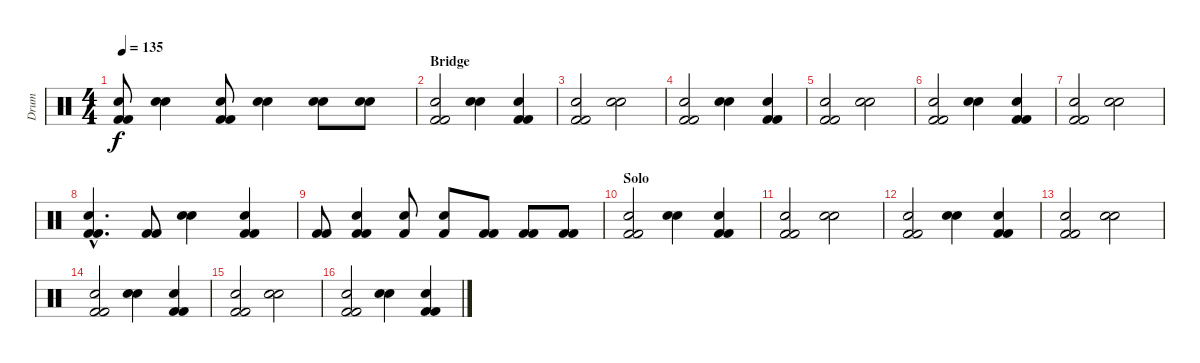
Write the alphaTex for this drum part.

\track ("Drum" "Drum") {instrument percussion}
\staff {score}
\articulation defaults
\ts (4 4)
\tempo 135
\clef neutral
\ks c
("Electric Snare (hit)" "Kick (hit) 2" "Kick (hit) 2").8{dy f} ("Electric Snare (hit)" "Electric Snare (hit)").4 ("Electric Snare (hit)" "Kick (hit) 2" "Kick (hit) 2").8 ("Electric Snare (hit)" "Electric Snare (hit)").4 ("Electric Snare (hit)" "Electric Snare (hit)").8 ("Electric Snare (hit)" "Electric Snare (hit)").8 |
\section ("" "Bridge")
("Electric Snare (hit)" "Kick (hit) 2" "Kick (hit) 2").2 ("Electric Snare (hit)" "Electric Snare (hit)").4 ("Electric Snare (hit)" "Kick (hit) 2" "Kick (hit) 2").4 |
("Electric Snare (hit)" "Kick (hit) 2" "Kick (hit) 2").2 ("Electric Snare (hit)" "Electric Snare (hit)").2 |
("Electric Snare (hit)" "Kick (hit) 2" "Kick (hit) 2").2 ("Electric Snare (hit)" "Electric Snare (hit)").4 ("Electric Snare (hit)" "Kick (hit) 2" "Kick (hit) 2").4 |
("Electric Snare (hit)" "Kick (hit) 2" "Kick (hit) 2").2 ("Electric Snare (hit)" "Electric Snare (hit)").2 |
("Electric Snare (hit)" "Kick (hit) 2" "Kick (hit) 2").2 ("Electric Snare (hit)" "Electric Snare (hit)").4 ("Electric Snare (hit)" "Kick (hit) 2" "Kick (hit) 2").4 |
("Electric Snare (hit)" "Kick (hit) 2" "Kick (hit) 2").2 ("Electric Snare (hit)" "Electric Snare (hit)").2 |
("Electric Snare (hit)"{hac} "Kick (hit) 2"{hac} "Kick (hit) 2"{hac}).4{d} ("Kick (hit) 2" "Kick (hit) 2").8 ("Electric Snare (hit)" "Electric Snare (hit)").4 ("Electric Snare (hit)" "Kick (hit) 2" "Kick (hit) 2").4 |
("Kick (hit) 2" "Kick (hit) 2").8 ("Electric Snare (hit)" "Kick (hit) 2" "Kick (hit) 2").4 ("Electric Snare (hit)" "Kick (hit) 2").8 ("Electric Snare (hit)" "Kick (hit) 2").8 ("Kick (hit) 2" "Kick (hit) 2").8 ("Kick (hit) 2" "Kick (hit) 2").8 ("Kick (hit) 2" "Kick (hit) 2").8 |
\section ("" "Solo")
("Electric Snare (hit)" "Kick (hit) 2" "Kick (hit) 2").2 ("Electric Snare (hit)" "Electric Snare (hit)").4 ("Electric Snare (hit)" "Kick (hit) 2" "Kick (hit) 2").4 |
("Electric Snare (hit)" "Kick (hit) 2" "Kick (hit) 2").2 ("Electric Snare (hit)" "Electric Snare (hit)").2 |
("Electric Snare (hit)" "Kick (hit) 2" "Kick (hit) 2").2 ("Electric Snare (hit)" "Electric Snare (hit)").4 ("Electric Snare (hit)" "Kick (hit) 2" "Kick (hit) 2").4 |
("Electric Snare (hit)" "Kick (hit) 2" "Kick (hit) 2").2 ("Electric Snare (hit)" "Electric Snare (hit)").2 |
("Electric Snare (hit)" "Kick (hit) 2" "Kick (hit) 2").2 ("Electric Snare (hit)" "Electric Snare (hit)").4 ("Electric Snare (hit)" "Kick (hit) 2" "Kick (hit) 2").4 |
("Electric Snare (hit)" "Kick (hit) 2" "Kick (hit) 2").2 ("Electric Snare (hit)" "Electric Snare (hit)").2 |
("Electric Snare (hit)" "Kick (hit) 2" "Kick (hit) 2").2 ("Electric Snare (hit)" "Electric Snare (hit)").4 ("Electric Snare (hit)" "Kick (hit) 2" "Kick (hit) 2").4
